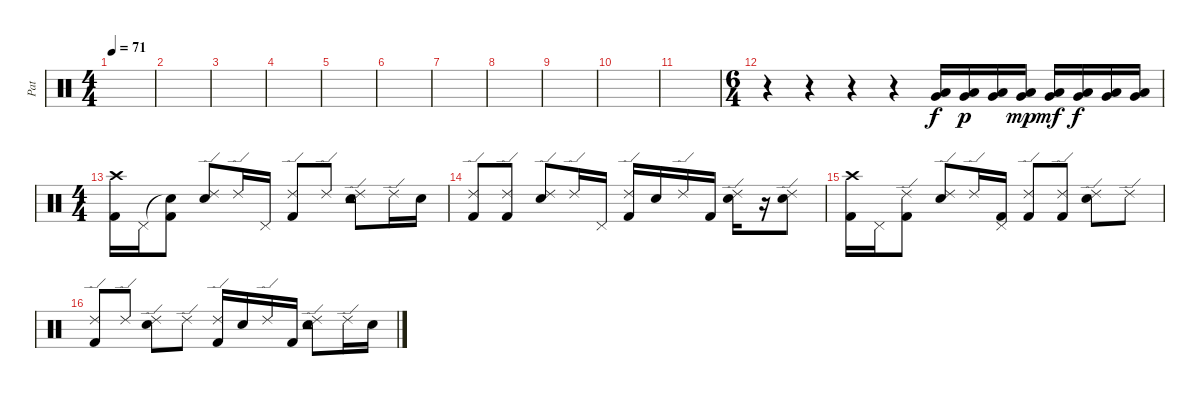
\track ("Pat" "Pat") {instrument percussion}
\staff {score}
\articulation defaults
\ts (4 4)
\tempo 71
\clef neutral
\ks c
|
|
|
|
|
|
|
|
|
|
|
\ts (6 4)
r.4 r.4 r.4 r.4 ("Low Tom (hit)" "Very Low Tom (hit)").16 ("Low Tom (hit)" "Very Low Tom (hit)").16{dy p} ("Low Tom (hit)" "Very Low Tom (hit)").16 ("Low Tom (hit)" "Very Low Tom (hit)").16{dy mp} ("Low Tom (hit)" "Very Low Tom (hit)").16{dy mf} ("Low Tom (hit)" "Very Low Tom (hit)").16{dy f} ("Low Tom (hit)" "Very Low Tom (hit)").16 ("Low Tom (hit)" "Very Low Tom (hit)").16 |
\ts (4 4)
("Crash high (hit)" "Kick (hit) 2").16 "Pedal Hi-Hat (hit)".16 ("Snare (hit)"{t} "Kick (hit) 2").8 ("Ride (edge) 2" "Snare (hit) 2").8 "Ride (edge) 2".16 "Pedal Hi-Hat (hit)".16 ("Ride (edge) 2" "Kick (hit) 2").8 "Ride (edge) 2".8 ("Tambourine (hit)" "Ride (edge) 2" "Snare (hit) 2").8 "Ride (edge) 2".16 "Snare (hit) 2".16 |
("Ride (edge) 2" "Kick (hit) 2").8 ("Ride (edge) 2" "Kick (hit) 2").8 ("Ride (edge) 2" "Snare (hit) 2").8 "Ride (edge) 2".16 "Pedal Hi-Hat (hit)".16 ("Ride (edge) 2" "Kick (hit) 2").16 "Snare (hit) 2".16 "Ride (edge) 2".16 "Kick (hit) 2".16 ("Ride (edge) 2" "Snare (hit) 2").16 r.16 ("Ride (edge) 2" "Snare (hit) 2").8 |
("Crash high (hit)" "Kick (hit) 2").16 "Pedal Hi-Hat (hit)".16 ("Ride (edge) 2" "Kick (hit) 2").8 ("Ride (edge) 2" "Snare (hit) 2").8 "Ride (edge) 2".16 ("Pedal Hi-Hat (hit)" "Kick (hit) 2").16 ("Ride (edge) 2" "Kick (hit) 2").8 ("Ride (edge) 2" "Kick (hit) 2").8 ("Ride (edge) 2" "Snare (hit) 2").8 "Ride (edge) 2".8 |
("Ride (edge) 2" "Kick (hit) 2").8 "Ride (edge) 2".8 ("Ride (edge) 2" "Snare (hit) 2").8 "Ride (edge) 2".8 ("Ride (edge) 2" "Kick (hit) 2").16 "Snare (hit) 2".16 "Ride (edge) 2".16 "Kick (hit) 2".16 ("Tambourine (hit)" "Ride (edge) 2" "Snare (hit) 2").8 "Ride (edge) 2".16 "Snare (hit) 2".16
